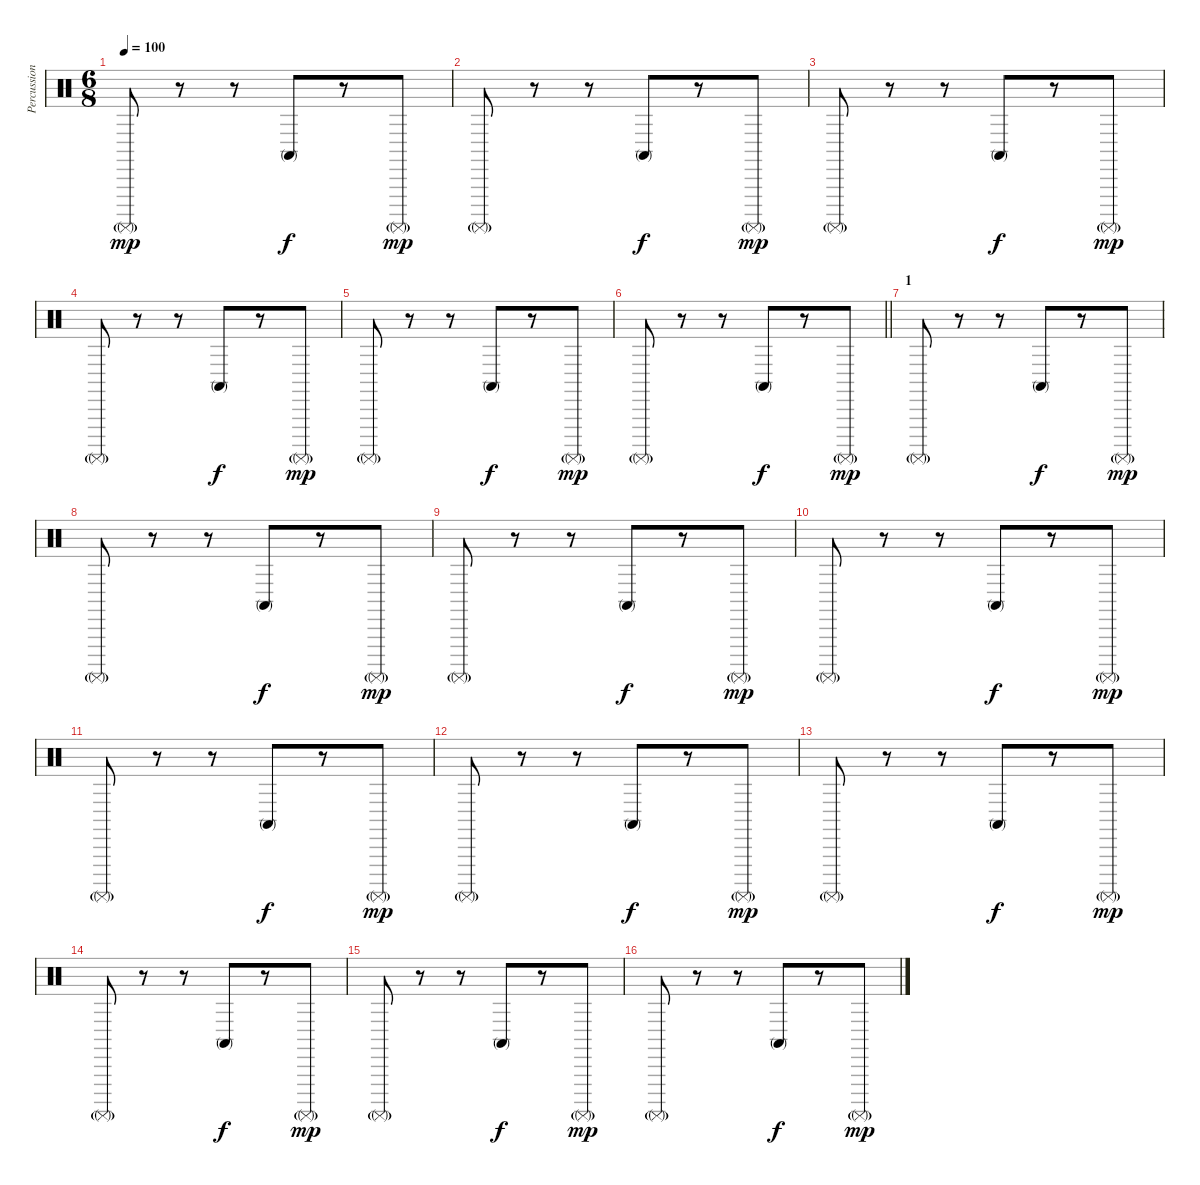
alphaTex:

\track ("Percussion" "Percussion") {instrument percussion}
\staff {score}
\articulation defaults
\ts (6 8)
\tempo 100
\clef neutral
\ks c "Surdo (mute)"{g}.8{dy mp}
r.8 r.8 "Conga high (mute)".8{dy f} r.8 "Surdo (mute)"{g}.8{dy mp} |
"Surdo (mute)"{g}.8 r.8 r.8 "Conga high (mute)".8{dy f} r.8 "Surdo (mute)"{g}.8{dy mp} |
"Surdo (mute)"{g}.8 r.8 r.8 "Conga high (mute)".8{dy f} r.8 "Surdo (mute)"{g}.8{dy mp} |
"Surdo (mute)"{g}.8 r.8 r.8 "Conga high (mute)".8{dy f} r.8 "Surdo (mute)"{g}.8{dy mp} |
"Surdo (mute)"{g}.8 r.8 r.8 "Conga high (mute)".8{dy f} r.8 "Surdo (mute)"{g}.8{dy mp} |
\barLineRight lightlight "Surdo (mute)"{g}.8
r.8 r.8 "Conga high (mute)".8{dy f} r.8 "Surdo (mute)"{g}.8{dy mp} |
\section ("" "1")
"Surdo (mute)"{g}.8 r.8 r.8 "Conga high (mute)".8{dy f} r.8 "Surdo (mute)"{g}.8{dy mp} |
"Surdo (mute)"{g}.8 r.8 r.8 "Conga high (mute)".8{dy f} r.8 "Surdo (mute)"{g}.8{dy mp} |
"Surdo (mute)"{g}.8 r.8 r.8 "Conga high (mute)".8{dy f} r.8 "Surdo (mute)"{g}.8{dy mp} |
"Surdo (mute)"{g}.8 r.8 r.8 "Conga high (mute)".8{dy f} r.8 "Surdo (mute)"{g}.8{dy mp} |
"Surdo (mute)"{g}.8 r.8 r.8 "Conga high (mute)".8{dy f} r.8 "Surdo (mute)"{g}.8{dy mp} |
"Surdo (mute)"{g}.8 r.8 r.8 "Conga high (mute)".8{dy f} r.8 "Surdo (mute)"{g}.8{dy mp} |
"Surdo (mute)"{g}.8 r.8 r.8 "Conga high (mute)".8{dy f} r.8 "Surdo (mute)"{g}.8{dy mp} |
"Surdo (mute)"{g}.8 r.8 r.8 "Conga high (mute)".8{dy f} r.8 "Surdo (mute)"{g}.8{dy mp} |
"Surdo (mute)"{g}.8 r.8 r.8 "Conga high (mute)".8{dy f} r.8 "Surdo (mute)"{g}.8{dy mp} |
"Surdo (mute)"{g}.8 r.8 r.8 "Conga high (mute)".8{dy f} r.8 "Surdo (mute)"{g}.8{dy mp}
